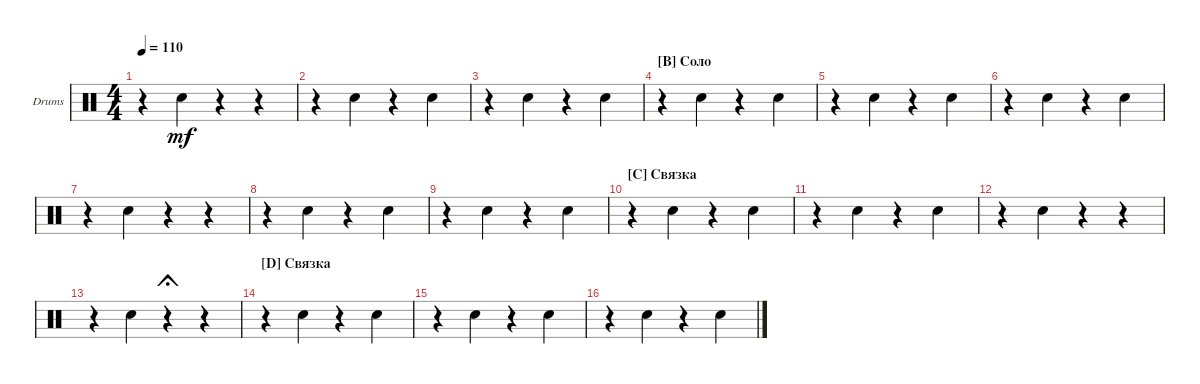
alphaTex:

\defaultSystemsLayout 4
\bracketExtendMode groupsimilarinstruments
\firstSystemTrackNameOrientation horizontal
\otherSystemsTrackNameOrientation horizontal
\track ("Drumkit" "Drums") {instrument percussion}
\staff {score}
\articulation defaults
\ts (4 4)
\tempo 110
\clef neutral
\ks c
r.4{dy mf} "Snare (hit) 2".4 r.4 r.4 |
r.4 "Snare (hit) 2".4 r.4 "Snare (hit) 2".4 |
r.4 "Snare (hit) 2".4 r.4 "Snare (hit) 2".4 |
\section ("B" "Соло")
r.4 "Snare (hit) 2".4 r.4 "Snare (hit) 2".4 |
r.4 "Snare (hit) 2".4 r.4 "Snare (hit) 2".4 |
r.4 "Snare (hit) 2".4 r.4 "Snare (hit) 2".4 |
r.4 "Snare (hit) 2".4 r.4 r.4 |
r.4 "Snare (hit) 2".4 r.4 "Snare (hit) 2".4 |
r.4 "Snare (hit) 2".4 r.4 "Snare (hit) 2".4 |
\section ("C" "Связка")
r.4 "Snare (hit) 2".4 r.4 "Snare (hit) 2".4 |
r.4 "Snare (hit) 2".4 r.4 "Snare (hit) 2".4 |
r.4 "Snare (hit) 2".4 r.4 r.4 |
r.4 "Snare (hit) 2".4 r.4{fermata (short 0)} r.4 |
\section ("D" "Связка")
r.4 "Snare (hit) 2".4 r.4 "Snare (hit) 2".4 |
r.4 "Snare (hit) 2".4 r.4 "Snare (hit) 2".4 |
r.4 "Snare (hit) 2".4 r.4 "Snare (hit) 2".4
